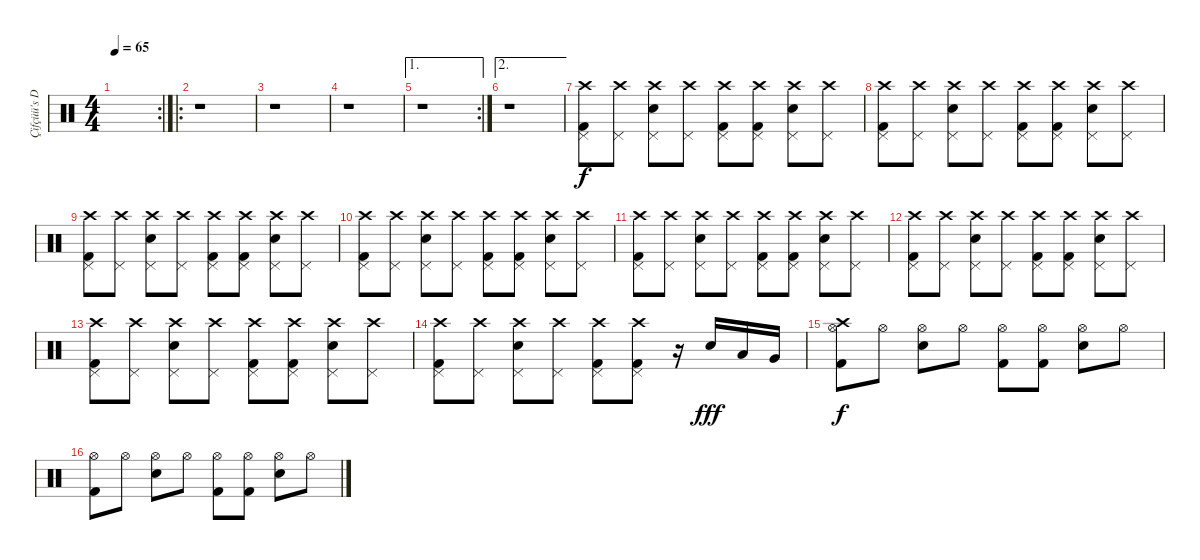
\track ("Çifçüü's Drum" "Çifçüü's D") {instrument percussion}
\staff {score}
\articulation defaults
\rc 2
\ts (4 4)
\tempo 65
\clef neutral
\ks c
|
\ro
r.1 |
r.1 |
r.1 |
\ae 1
\rc 2
r.1 |
\ae 2
r.1 |
("Crash high (hit)" "Pedal Hi-Hat (hit)" "Kick (hit) 2").8 ("Crash high (hit)" "Pedal Hi-Hat (hit)").8 ("Crash high (hit)" "Pedal Hi-Hat (hit)" "Snare (hit) 2").8 ("Crash high (hit)" "Pedal Hi-Hat (hit)").8 ("Crash high (hit)" "Pedal Hi-Hat (hit)" "Kick (hit) 2").8 ("Crash high (hit)" "Pedal Hi-Hat (hit)" "Kick (hit) 2").8 ("Crash high (hit)" "Pedal Hi-Hat (hit)" "Snare (hit) 2").8 ("Crash high (hit)" "Pedal Hi-Hat (hit)").8 |
("Crash high (hit)" "Pedal Hi-Hat (hit)" "Kick (hit) 2").8 ("Crash high (hit)" "Pedal Hi-Hat (hit)").8 ("Crash high (hit)" "Pedal Hi-Hat (hit)" "Snare (hit) 2").8 ("Crash high (hit)" "Pedal Hi-Hat (hit)").8 ("Crash high (hit)" "Pedal Hi-Hat (hit)" "Kick (hit) 2").8 ("Crash high (hit)" "Pedal Hi-Hat (hit)" "Kick (hit) 2").8 ("Crash high (hit)" "Pedal Hi-Hat (hit)" "Snare (hit) 2").8 ("Crash high (hit)" "Pedal Hi-Hat (hit)").8 |
("Crash high (hit)" "Pedal Hi-Hat (hit)" "Kick (hit) 2").8 ("Crash high (hit)" "Pedal Hi-Hat (hit)").8 ("Crash high (hit)" "Pedal Hi-Hat (hit)" "Snare (hit) 2").8 ("Crash high (hit)" "Pedal Hi-Hat (hit)").8 ("Crash high (hit)" "Pedal Hi-Hat (hit)" "Kick (hit) 2").8 ("Crash high (hit)" "Pedal Hi-Hat (hit)" "Kick (hit) 2").8 ("Crash high (hit)" "Pedal Hi-Hat (hit)" "Snare (hit) 2").8 ("Crash high (hit)" "Pedal Hi-Hat (hit)").8 |
("Crash high (hit)" "Pedal Hi-Hat (hit)" "Kick (hit) 2").8 ("Crash high (hit)" "Pedal Hi-Hat (hit)").8 ("Crash high (hit)" "Pedal Hi-Hat (hit)" "Snare (hit) 2").8 ("Crash high (hit)" "Pedal Hi-Hat (hit)").8 ("Crash high (hit)" "Pedal Hi-Hat (hit)" "Kick (hit) 2").8 ("Crash high (hit)" "Pedal Hi-Hat (hit)" "Kick (hit) 2").8 ("Crash high (hit)" "Pedal Hi-Hat (hit)" "Snare (hit) 2").8 ("Crash high (hit)" "Pedal Hi-Hat (hit)").8 |
("Crash high (hit)" "Pedal Hi-Hat (hit)" "Kick (hit) 2").8 ("Crash high (hit)" "Pedal Hi-Hat (hit)").8 ("Crash high (hit)" "Pedal Hi-Hat (hit)" "Snare (hit) 2").8 ("Crash high (hit)" "Pedal Hi-Hat (hit)").8 ("Crash high (hit)" "Pedal Hi-Hat (hit)" "Kick (hit) 2").8 ("Crash high (hit)" "Pedal Hi-Hat (hit)" "Kick (hit) 2").8 ("Crash high (hit)" "Pedal Hi-Hat (hit)" "Snare (hit) 2").8 ("Crash high (hit)" "Pedal Hi-Hat (hit)").8 |
("Crash high (hit)" "Pedal Hi-Hat (hit)" "Kick (hit) 2").8 ("Crash high (hit)" "Pedal Hi-Hat (hit)").8 ("Crash high (hit)" "Pedal Hi-Hat (hit)" "Snare (hit) 2").8 ("Crash high (hit)" "Pedal Hi-Hat (hit)").8 ("Crash high (hit)" "Pedal Hi-Hat (hit)" "Kick (hit) 2").8 ("Crash high (hit)" "Pedal Hi-Hat (hit)" "Kick (hit) 2").8 ("Crash high (hit)" "Pedal Hi-Hat (hit)" "Snare (hit) 2").8 ("Crash high (hit)" "Pedal Hi-Hat (hit)").8 |
("Crash high (hit)" "Pedal Hi-Hat (hit)" "Kick (hit) 2").8 ("Crash high (hit)" "Pedal Hi-Hat (hit)").8 ("Crash high (hit)" "Pedal Hi-Hat (hit)" "Snare (hit) 2").8 ("Crash high (hit)" "Pedal Hi-Hat (hit)").8 ("Crash high (hit)" "Pedal Hi-Hat (hit)" "Kick (hit) 2").8 ("Crash high (hit)" "Pedal Hi-Hat (hit)" "Kick (hit) 2").8 ("Crash high (hit)" "Pedal Hi-Hat (hit)" "Snare (hit) 2").8 ("Crash high (hit)" "Pedal Hi-Hat (hit)").8 |
("Crash high (hit)" "Pedal Hi-Hat (hit)" "Kick (hit) 2").8 ("Crash high (hit)" "Pedal Hi-Hat (hit)").8 ("Crash high (hit)" "Pedal Hi-Hat (hit)" "Snare (hit) 2").8 ("Crash high (hit)" "Pedal Hi-Hat (hit)").8 ("Crash high (hit)" "Pedal Hi-Hat (hit)" "Kick (hit) 2").8 ("Crash high (hit)" "Pedal Hi-Hat (hit)" "Kick (hit) 2").8 r.16 "Electric Snare (hit)".16{dy fff} "Low Tom (hit)".16 "Very Low Tom (hit)".16 |
("Crash high (hit)" "Hi-Hat (open)" "Kick (hit) 2").8{dy f} "Hi-Hat (open)".8 ("Hi-Hat (open)" "Snare (hit) 2").8 "Hi-Hat (open)".8 ("Hi-Hat (open)" "Kick (hit) 2").8 ("Hi-Hat (open)" "Kick (hit) 2").8 ("Hi-Hat (open)" "Snare (hit) 2").8 "Hi-Hat (open)".8 |
("Hi-Hat (open)" "Kick (hit) 2").8 "Hi-Hat (open)".8 ("Hi-Hat (open)" "Snare (hit) 2").8 "Hi-Hat (open)".8 ("Hi-Hat (open)" "Kick (hit) 2").8 ("Hi-Hat (open)" "Kick (hit) 2").8 ("Hi-Hat (open)" "Snare (hit) 2").8 "Hi-Hat (open)".8
